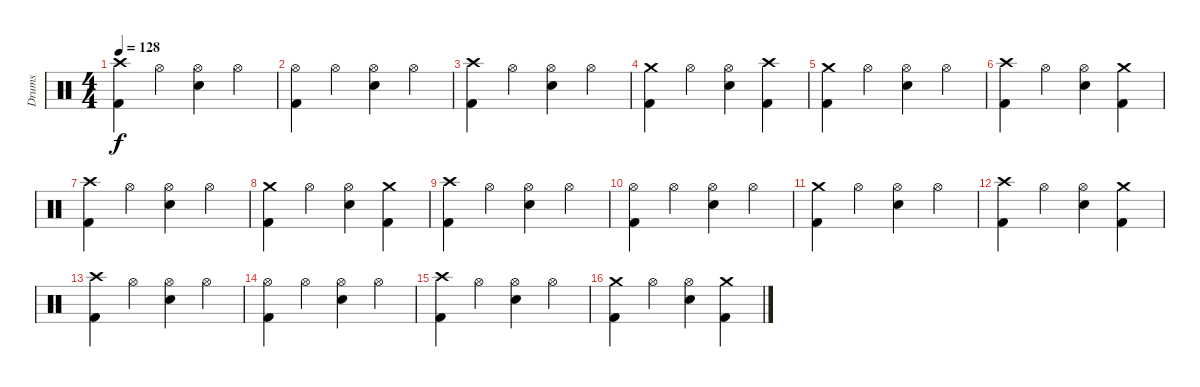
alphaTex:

\track ("Drums" "Drums") {instrument percussion}
\staff {score}
\articulation defaults
\ts (4 4)
\tempo 128
\clef neutral
\ks c
("Crash high (hit)" "Kick (hit) 2").4{dy f} "Hi-Hat (open)".4 ("Hi-Hat (open)" "Electric Snare (hit)").4 "Hi-Hat (open)".4 |
("Hi-Hat (open)" "Kick (hit) 2").4 "Hi-Hat (open)".4 ("Hi-Hat (open)" "Electric Snare (hit)").4 "Hi-Hat (open)".4 |
("Crash high (hit)" "Kick (hit) 2").4 "Hi-Hat (open)".4 ("Hi-Hat (open)" "Electric Snare (hit)").4 "Hi-Hat (open)".4 |
("Crash medium (hit)" "Kick (hit) 2").4 "Hi-Hat (open)".4 ("Hi-Hat (open)" "Electric Snare (hit)").4 ("Crash high (hit)" "Kick (hit) 2").4 |
("Crash medium (hit)" "Kick (hit) 2").4 "Hi-Hat (open)".4 ("Hi-Hat (open)" "Electric Snare (hit)").4 "Hi-Hat (open)".4 |
("Crash high (hit)" "Kick (hit) 2").4 "Hi-Hat (open)".4 ("Hi-Hat (open)" "Electric Snare (hit)").4 ("Crash medium (hit)" "Kick (hit) 2").4 |
("Crash high (hit)" "Kick (hit) 2").4 "Hi-Hat (open)".4 ("Hi-Hat (open)" "Electric Snare (hit)").4 "Hi-Hat (open)".4 |
("Crash medium (hit)" "Kick (hit) 2").4 "Hi-Hat (open)".4 ("Hi-Hat (open)" "Electric Snare (hit)").4 ("Crash medium (hit)" "Kick (hit) 2").4 |
("Crash high (hit)" "Kick (hit) 2").4 "Hi-Hat (open)".4 ("Hi-Hat (open)" "Electric Snare (hit)").4 "Hi-Hat (open)".4 |
("Hi-Hat (open)" "Kick (hit) 2").4 "Hi-Hat (open)".4 ("Hi-Hat (open)" "Electric Snare (hit)").4 "Hi-Hat (open)".4 |
("Crash medium (hit)" "Kick (hit) 2").4 "Hi-Hat (open)".4 ("Hi-Hat (open)" "Electric Snare (hit)").4 "Hi-Hat (open)".4 |
("Crash high (hit)" "Kick (hit) 2").4 "Hi-Hat (open)".4 ("Hi-Hat (open)" "Electric Snare (hit)").4 ("Crash medium (hit)" "Kick (hit) 2").4 |
("Crash high (hit)" "Kick (hit) 2").4 "Hi-Hat (open)".4 ("Hi-Hat (open)" "Electric Snare (hit)").4 "Hi-Hat (open)".4 |
("Hi-Hat (open)" "Kick (hit) 2").4 "Hi-Hat (open)".4 ("Hi-Hat (open)" "Electric Snare (hit)").4 "Hi-Hat (open)".4 |
("Crash high (hit)" "Kick (hit) 2").4 "Hi-Hat (open)".4 ("Hi-Hat (open)" "Electric Snare (hit)").4 "Hi-Hat (open)".4 |
("Crash medium (hit)" "Kick (hit) 2").4 "Hi-Hat (open)".4 ("Hi-Hat (open)" "Electric Snare (hit)").4 ("Crash medium (hit)" "Kick (hit) 2").4
